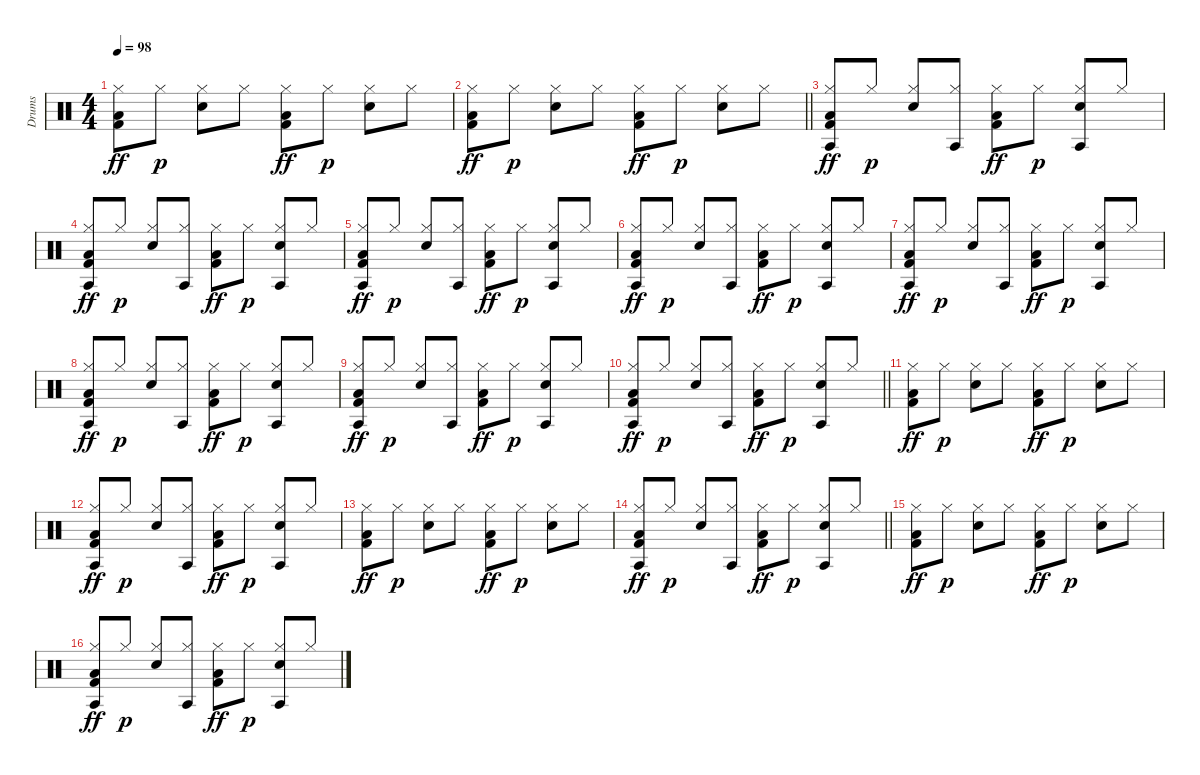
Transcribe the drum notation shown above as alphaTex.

\track ("Drums" "Drums") {instrument percussion}
\staff {score}
\articulation defaults
\ts (4 4)
\tempo 98
\clef neutral
\ks c
("Hi-Hat (closed)" "Low Floor Tom (hit)" "Kick (hit) 2").8{dy ff} "Hi-Hat (closed)".8{dy p} ("Hi-Hat (closed)" "Snare (hit) 2").8 "Hi-Hat (closed)".8 ("Hi-Hat (closed)" "Low Floor Tom (hit)" "Kick (hit) 2").8{dy ff} "Hi-Hat (closed)".8{dy p} ("Hi-Hat (closed)" "Snare (hit) 2").8 "Hi-Hat (closed)".8 |
\barLineRight lightlight
("Hi-Hat (closed)" "Low Floor Tom (hit)" "Kick (hit) 2").8{dy ff} "Hi-Hat (closed)".8{dy p} ("Hi-Hat (closed)" "Snare (hit) 2").8 "Hi-Hat (closed)".8 ("Hi-Hat (closed)" "Low Floor Tom (hit)" "Kick (hit) 2").8{dy ff} "Hi-Hat (closed)".8{dy p} ("Hi-Hat (closed)" "Snare (hit) 2").8 "Hi-Hat (closed)".8 |
("Agogo tow (hit)" "Hi-Hat (closed)" "Low Floor Tom (hit)" "Kick (hit) 2").8{dy ff} "Hi-Hat (closed)".8{dy p} ("Hi-Hat (closed)" "Snare (hit) 2").8 ("Agogo tow (hit)" "Hi-Hat (closed)").8 ("Hi-Hat (closed)" "Low Floor Tom (hit)" "Kick (hit) 2").8{dy ff} "Hi-Hat (closed)".8{dy p} ("Agogo tow (hit)" "Hi-Hat (closed)" "Snare (hit) 2").8 "Hi-Hat (closed)".8 |
("Agogo tow (hit)" "Hi-Hat (closed)" "Low Floor Tom (hit)" "Kick (hit) 2").8{dy ff} "Hi-Hat (closed)".8{dy p} ("Hi-Hat (closed)" "Snare (hit) 2").8 ("Agogo tow (hit)" "Hi-Hat (closed)").8 ("Hi-Hat (closed)" "Low Floor Tom (hit)" "Kick (hit) 2").8{dy ff} "Hi-Hat (closed)".8{dy p} ("Agogo tow (hit)" "Hi-Hat (closed)" "Snare (hit) 2").8 "Hi-Hat (closed)".8 |
("Agogo tow (hit)" "Hi-Hat (closed)" "Low Floor Tom (hit)" "Kick (hit) 2").8{dy ff} "Hi-Hat (closed)".8{dy p} ("Hi-Hat (closed)" "Snare (hit) 2").8 ("Agogo tow (hit)" "Hi-Hat (closed)").8 ("Hi-Hat (closed)" "Low Floor Tom (hit)" "Kick (hit) 2").8{dy ff} "Hi-Hat (closed)".8{dy p} ("Agogo tow (hit)" "Hi-Hat (closed)" "Snare (hit) 2").8 "Hi-Hat (closed)".8 |
("Agogo tow (hit)" "Hi-Hat (closed)" "Low Floor Tom (hit)" "Kick (hit) 2").8{dy ff} "Hi-Hat (closed)".8{dy p} ("Hi-Hat (closed)" "Snare (hit) 2").8 ("Agogo tow (hit)" "Hi-Hat (closed)").8 ("Hi-Hat (closed)" "Low Floor Tom (hit)" "Kick (hit) 2").8{dy ff} "Hi-Hat (closed)".8{dy p} ("Agogo tow (hit)" "Hi-Hat (closed)" "Snare (hit) 2").8 "Hi-Hat (closed)".8 |
("Agogo tow (hit)" "Hi-Hat (closed)" "Low Floor Tom (hit)" "Kick (hit) 2").8{dy ff} "Hi-Hat (closed)".8{dy p} ("Hi-Hat (closed)" "Snare (hit) 2").8 ("Agogo tow (hit)" "Hi-Hat (closed)").8 ("Hi-Hat (closed)" "Low Floor Tom (hit)" "Kick (hit) 2").8{dy ff} "Hi-Hat (closed)".8{dy p} ("Agogo tow (hit)" "Hi-Hat (closed)" "Snare (hit) 2").8 "Hi-Hat (closed)".8 |
("Agogo tow (hit)" "Hi-Hat (closed)" "Low Floor Tom (hit)" "Kick (hit) 2").8{dy ff} "Hi-Hat (closed)".8{dy p} ("Hi-Hat (closed)" "Snare (hit) 2").8 ("Agogo tow (hit)" "Hi-Hat (closed)").8 ("Hi-Hat (closed)" "Low Floor Tom (hit)" "Kick (hit) 2").8{dy ff} "Hi-Hat (closed)".8{dy p} ("Agogo tow (hit)" "Hi-Hat (closed)" "Snare (hit) 2").8 "Hi-Hat (closed)".8 |
("Agogo tow (hit)" "Hi-Hat (closed)" "Low Floor Tom (hit)" "Kick (hit) 2").8{dy ff} "Hi-Hat (closed)".8{dy p} ("Hi-Hat (closed)" "Snare (hit) 2").8 ("Agogo tow (hit)" "Hi-Hat (closed)").8 ("Hi-Hat (closed)" "Low Floor Tom (hit)" "Kick (hit) 2").8{dy ff} "Hi-Hat (closed)".8{dy p} ("Agogo tow (hit)" "Hi-Hat (closed)" "Snare (hit) 2").8 "Hi-Hat (closed)".8 |
\barLineRight lightlight
("Agogo tow (hit)" "Hi-Hat (closed)" "Low Floor Tom (hit)" "Kick (hit) 2").8{dy ff} "Hi-Hat (closed)".8{dy p} ("Hi-Hat (closed)" "Snare (hit) 2").8 ("Agogo tow (hit)" "Hi-Hat (closed)").8 ("Hi-Hat (closed)" "Low Floor Tom (hit)" "Kick (hit) 2").8{dy ff} "Hi-Hat (closed)".8{dy p} ("Agogo tow (hit)" "Hi-Hat (closed)" "Snare (hit) 2").8 "Hi-Hat (closed)".8 |
("Hi-Hat (closed)" "Low Floor Tom (hit)" "Kick (hit) 2").8{dy ff} "Hi-Hat (closed)".8{dy p} ("Hi-Hat (closed)" "Snare (hit) 2").8 "Hi-Hat (closed)".8 ("Hi-Hat (closed)" "Low Floor Tom (hit)" "Kick (hit) 2").8{dy ff} "Hi-Hat (closed)".8{dy p} ("Hi-Hat (closed)" "Snare (hit) 2").8 "Hi-Hat (closed)".8 |
("Agogo tow (hit)" "Hi-Hat (closed)" "Low Floor Tom (hit)" "Kick (hit) 2").8{dy ff} "Hi-Hat (closed)".8{dy p} ("Hi-Hat (closed)" "Snare (hit) 2").8 ("Agogo tow (hit)" "Hi-Hat (closed)").8 ("Hi-Hat (closed)" "Low Floor Tom (hit)" "Kick (hit) 2").8{dy ff} "Hi-Hat (closed)".8{dy p} ("Agogo tow (hit)" "Hi-Hat (closed)" "Snare (hit) 2").8 "Hi-Hat (closed)".8 |
("Hi-Hat (closed)" "Low Floor Tom (hit)" "Kick (hit) 2").8{dy ff} "Hi-Hat (closed)".8{dy p} ("Hi-Hat (closed)" "Snare (hit) 2").8 "Hi-Hat (closed)".8 ("Hi-Hat (closed)" "Low Floor Tom (hit)" "Kick (hit) 2").8{dy ff} "Hi-Hat (closed)".8{dy p} ("Hi-Hat (closed)" "Snare (hit) 2").8 "Hi-Hat (closed)".8 |
\barLineRight lightlight
("Agogo tow (hit)" "Hi-Hat (closed)" "Low Floor Tom (hit)" "Kick (hit) 2").8{dy ff} "Hi-Hat (closed)".8{dy p} ("Hi-Hat (closed)" "Snare (hit) 2").8 ("Agogo tow (hit)" "Hi-Hat (closed)").8 ("Hi-Hat (closed)" "Low Floor Tom (hit)" "Kick (hit) 2").8{dy ff} "Hi-Hat (closed)".8{dy p} ("Agogo tow (hit)" "Hi-Hat (closed)" "Snare (hit) 2").8 "Hi-Hat (closed)".8 |
\section ("" "")
("Hi-Hat (closed)" "Low Floor Tom (hit)" "Kick (hit) 2").8{dy ff} "Hi-Hat (closed)".8{dy p} ("Hi-Hat (closed)" "Snare (hit) 2").8 "Hi-Hat (closed)".8 ("Hi-Hat (closed)" "Low Floor Tom (hit)" "Kick (hit) 2").8{dy ff} "Hi-Hat (closed)".8{dy p} ("Hi-Hat (closed)" "Snare (hit) 2").8 "Hi-Hat (closed)".8 |
("Agogo tow (hit)" "Hi-Hat (closed)" "Low Floor Tom (hit)" "Kick (hit) 2").8{dy ff} "Hi-Hat (closed)".8{dy p} ("Hi-Hat (closed)" "Snare (hit) 2").8 ("Agogo tow (hit)" "Hi-Hat (closed)").8 ("Hi-Hat (closed)" "Low Floor Tom (hit)" "Kick (hit) 2").8{dy ff} "Hi-Hat (closed)".8{dy p} ("Agogo tow (hit)" "Hi-Hat (closed)" "Snare (hit) 2").8 "Hi-Hat (closed)".8
